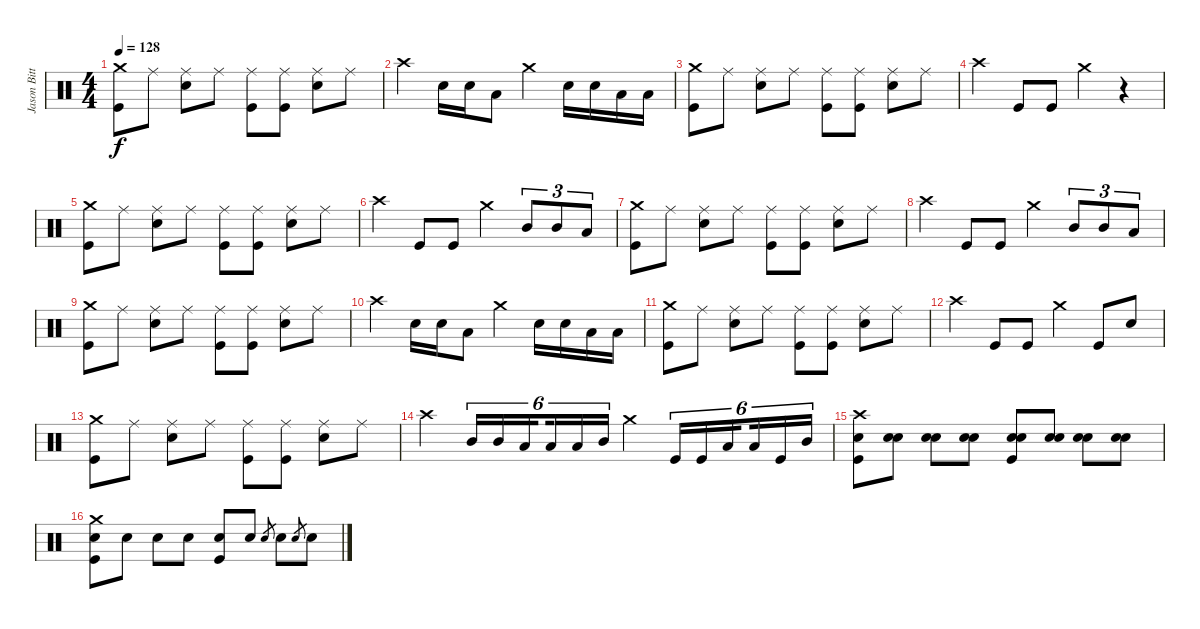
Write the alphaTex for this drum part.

\track ("Jason Bittner" "Jason Bitt") {instrument percussion}
\staff {score}
\articulation defaults
\ts (4 4)
\tempo 128
\clef neutral
\ks c
("Crash medium (hit)" "Kick (hit)").8{dy f} "Ride (middle)".8 ("Ride (middle)" "Electric Snare (hit)").8 "Ride (middle)".8 ("Ride (middle)" "Kick (hit)").8 ("Ride (middle)" "Kick (hit)").8 ("Ride (middle)" "Electric Snare (hit)").8 "Ride (middle)".8 |
"Crash high (hit)".4 "Electric Snare (hit)".16 "Electric Snare (hit)".16 "Low Tom (hit)".8 "Crash medium (hit)".4 "Electric Snare (hit)".16 "Electric Snare (hit)".16 "Low Tom (hit)".16 "Low Floor Tom (hit)".16 |
("Crash medium (hit)" "Kick (hit)").8 "Ride (middle)".8 ("Ride (middle)" "Electric Snare (hit)").8 "Ride (middle)".8 ("Ride (middle)" "Kick (hit)").8 ("Ride (middle)" "Kick (hit)").8 ("Ride (middle)" "Electric Snare (hit)").8 "Ride (middle)".8 |
"Crash high (hit)".4 "Kick (hit)".8 "Kick (hit)".8 "Crash medium (hit)".4 r.4 |
("Crash medium (hit)" "Kick (hit)").8 "Ride (middle)".8 ("Ride (middle)" "Electric Snare (hit)").8 "Ride (middle)".8 ("Ride (middle)" "Kick (hit)").8 ("Ride (middle)" "Kick (hit)").8 ("Ride (middle)" "Electric Snare (hit)").8 "Ride (middle)".8 |
"Crash high (hit)".4 "Kick (hit)".8 "Kick (hit)".8 "Crash medium (hit)".4 "Mid Tom (hit)".8{tu (3 2)} "Mid Tom (hit)".8{tu (3 2)} "Low Tom (hit)".8{tu (3 2)} |
("Crash medium (hit)" "Kick (hit)").8 "Ride (middle)".8 ("Ride (middle)" "Electric Snare (hit)").8 "Ride (middle)".8 ("Ride (middle)" "Kick (hit)").8 ("Ride (middle)" "Kick (hit)").8 ("Ride (middle)" "Electric Snare (hit)").8 "Ride (middle)".8 |
"Crash high (hit)".4 "Kick (hit)".8 "Kick (hit)".8 "Crash medium (hit)".4 "Mid Tom (hit)".8{tu (3 2)} "Mid Tom (hit)".8{tu (3 2)} "Low Tom (hit)".8{tu (3 2)} |
("Crash medium (hit)" "Kick (hit)").8 "Ride (middle)".8 ("Ride (middle)" "Electric Snare (hit)").8 "Ride (middle)".8 ("Ride (middle)" "Kick (hit)").8 ("Ride (middle)" "Kick (hit)").8 ("Ride (middle)" "Electric Snare (hit)").8 "Ride (middle)".8 |
"Crash high (hit)".4 "Electric Snare (hit)".16 "Electric Snare (hit)".16 "Low Tom (hit)".8 "Crash medium (hit)".4 "Electric Snare (hit)".16 "Electric Snare (hit)".16 "Low Tom (hit)".16 "Low Floor Tom (hit)".16 |
("Crash medium (hit)" "Kick (hit)").8 "Ride (middle)".8 ("Ride (middle)" "Electric Snare (hit)").8 "Ride (middle)".8 ("Ride (middle)" "Kick (hit)").8 ("Ride (middle)" "Kick (hit)").8 ("Ride (middle)" "Electric Snare (hit)").8 "Ride (middle)".8 |
"Crash high (hit)".4 "Kick (hit)".8 "Kick (hit)".8 "Crash medium (hit)".4 "Kick (hit)".8 "Electric Snare (hit)".8 |
("Crash medium (hit)" "Kick (hit)").8 "Ride (middle)".8 ("Ride (middle)" "Electric Snare (hit)").8 "Ride (middle)".8 ("Ride (middle)" "Kick (hit)").8 ("Ride (middle)" "Kick (hit)").8 ("Ride (middle)" "Electric Snare (hit)").8 "Ride (middle)".8 |
"Crash high (hit)".4 "Mid Tom (hit)".16{tu (6 4)} "Mid Tom (hit)".16{tu (6 4)} "Low Tom (hit)".16{tu (6 4) beam splitsecondary} "Low Tom (hit)".16{tu (6 4)} "Low Tom (hit)".16{tu (6 4)} "Mid Tom (hit)".16{tu (6 4)} "Crash medium (hit)".4 "Kick (hit)".16{tu (6 4)} "Kick (hit)".16{tu (6 4)} "Low Tom (hit)".16{tu (6 4) beam splitsecondary} "Low Tom (hit)".16{tu (6 4)} "Kick (hit)".16{tu (6 4)} "Mid Tom (hit)".16{tu (6 4)} |
("Crash high (hit)" "Electric Snare (hit)" "Kick (hit)").8 ("Electric Snare (hit)" "Electric Snare (hit)").8 ("Electric Snare (hit)" "Electric Snare (hit)").8 ("Electric Snare (hit)" "Electric Snare (hit)").8 ("Electric Snare (hit)" "Electric Snare (hit)" "Kick (hit)").8 ("Electric Snare (hit)" "Electric Snare (hit)").8 ("Electric Snare (hit)" "Electric Snare (hit)").8 ("Electric Snare (hit)" "Electric Snare (hit)").8 |
("Crash medium (hit)" "Electric Snare (hit)" "Kick (hit)").8 "Electric Snare (hit)".8 "Electric Snare (hit)".8 "Electric Snare (hit)".8 ("Electric Snare (hit)" "Kick (hit)").8 "Electric Snare (hit)".8 "Electric Snare (hit)".8{gr} "Electric Snare (hit)".8 "Electric Snare (hit)".8{gr} "Electric Snare (hit)".8
